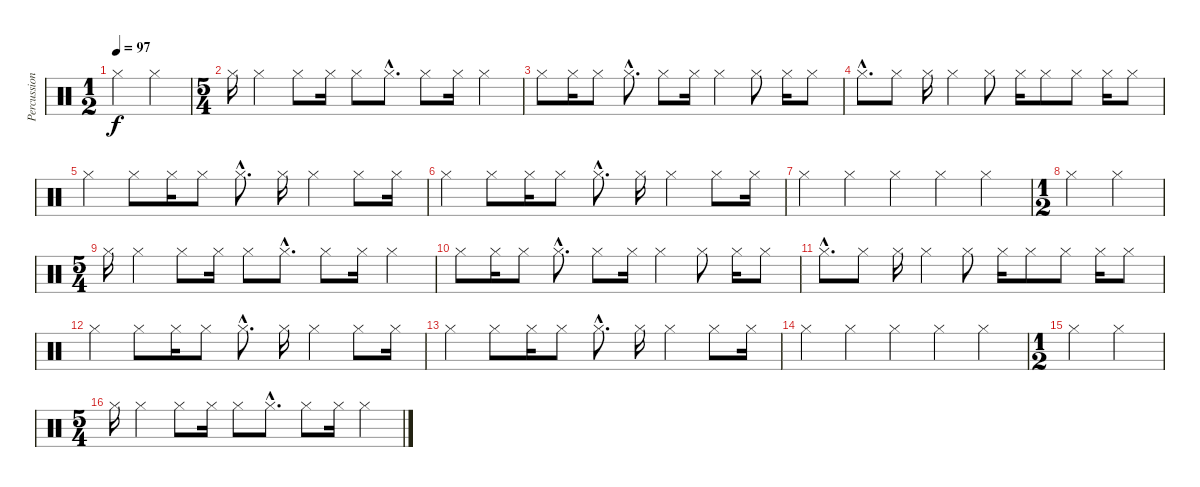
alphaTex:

\track ("Percussions" "Percussion") {instrument percussion}
\staff {score}
\articulation defaults
\ts (1 2)
\tempo 97
\clef neutral
\ks c "Hi-Hat (closed)".4{dy f} "Hi-Hat (closed)".4
|
\ts (5 4)
"Hi-Hat (closed)".16{volume 13} "Hi-Hat (closed)".4 "Hi-Hat (closed)".8 "Hi-Hat (closed)".16 "Hi-Hat (closed)".8 "Hi-Hat (closed)"{hac}.8{d} "Hi-Hat (closed)".8 "Hi-Hat (closed)".16 "Hi-Hat (closed)".4 |
"Hi-Hat (closed)".8 "Hi-Hat (closed)".16 "Hi-Hat (closed)".8 "Hi-Hat (closed)"{hac}.8{d} "Hi-Hat (closed)".8 "Hi-Hat (closed)".16 "Hi-Hat (closed)".4 "Hi-Hat (closed)".8 "Hi-Hat (closed)".16 "Hi-Hat (closed)".8 |
"Hi-Hat (closed)"{hac}.8{d} "Hi-Hat (closed)".8 "Hi-Hat (closed)".16 "Hi-Hat (closed)".4 "Hi-Hat (closed)".8 "Hi-Hat (closed)".16 "Hi-Hat (closed)".8 "Hi-Hat (closed)".8 "Hi-Hat (closed)".16 "Hi-Hat (closed)".8 |
"Hi-Hat (closed)".4 "Hi-Hat (closed)".8 "Hi-Hat (closed)".16 "Hi-Hat (closed)".8 "Hi-Hat (closed)"{hac}.8{d} "Hi-Hat (closed)".16 "Hi-Hat (closed)".4 "Hi-Hat (closed)".8 "Hi-Hat (closed)".16 |
"Hi-Hat (closed)".4 "Hi-Hat (closed)".8 "Hi-Hat (closed)".16 "Hi-Hat (closed)".8 "Hi-Hat (closed)"{hac}.8{d} "Hi-Hat (closed)".16 "Hi-Hat (closed)".4 "Hi-Hat (closed)".8 "Hi-Hat (closed)".16 |
"Hi-Hat (closed)".4 "Hi-Hat (closed)".4 "Hi-Hat (closed)".4 "Hi-Hat (closed)".4 "Hi-Hat (closed)".4 |
\ts (1 2)
"Hi-Hat (closed)".4 "Hi-Hat (closed)".4 |
\ts (5 4)
"Hi-Hat (closed)".16{volume 13} "Hi-Hat (closed)".4 "Hi-Hat (closed)".8 "Hi-Hat (closed)".16 "Hi-Hat (closed)".8 "Hi-Hat (closed)"{hac}.8{d} "Hi-Hat (closed)".8 "Hi-Hat (closed)".16 "Hi-Hat (closed)".4 |
"Hi-Hat (closed)".8 "Hi-Hat (closed)".16 "Hi-Hat (closed)".8 "Hi-Hat (closed)"{hac}.8{d} "Hi-Hat (closed)".8 "Hi-Hat (closed)".16 "Hi-Hat (closed)".4 "Hi-Hat (closed)".8 "Hi-Hat (closed)".16 "Hi-Hat (closed)".8 |
"Hi-Hat (closed)"{hac}.8{d} "Hi-Hat (closed)".8 "Hi-Hat (closed)".16 "Hi-Hat (closed)".4 "Hi-Hat (closed)".8 "Hi-Hat (closed)".16 "Hi-Hat (closed)".8 "Hi-Hat (closed)".8 "Hi-Hat (closed)".16 "Hi-Hat (closed)".8 |
"Hi-Hat (closed)".4 "Hi-Hat (closed)".8 "Hi-Hat (closed)".16 "Hi-Hat (closed)".8 "Hi-Hat (closed)"{hac}.8{d} "Hi-Hat (closed)".16 "Hi-Hat (closed)".4 "Hi-Hat (closed)".8 "Hi-Hat (closed)".16 |
"Hi-Hat (closed)".4 "Hi-Hat (closed)".8 "Hi-Hat (closed)".16 "Hi-Hat (closed)".8 "Hi-Hat (closed)"{hac}.8{d} "Hi-Hat (closed)".16 "Hi-Hat (closed)".4 "Hi-Hat (closed)".8 "Hi-Hat (closed)".16 |
"Hi-Hat (closed)".4 "Hi-Hat (closed)".4 "Hi-Hat (closed)".4 "Hi-Hat (closed)".4 "Hi-Hat (closed)".4 |
\ts (1 2)
"Hi-Hat (closed)".4 "Hi-Hat (closed)".4 |
\ts (5 4)
"Hi-Hat (closed)".16{volume 13} "Hi-Hat (closed)".4 "Hi-Hat (closed)".8 "Hi-Hat (closed)".16 "Hi-Hat (closed)".8 "Hi-Hat (closed)"{hac}.8{d} "Hi-Hat (closed)".8 "Hi-Hat (closed)".16 "Hi-Hat (closed)".4
